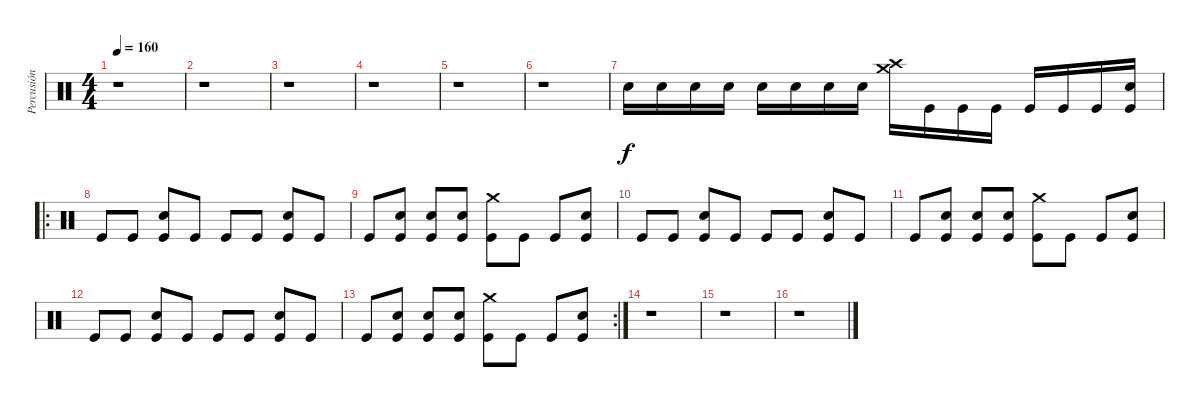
\track ("Percusión" "Percusión") {instrument percussion}
\staff {score}
\articulation defaults
\ts (4 4)
\tempo 160
\clef neutral
\ks c
r.1{dy f} |
r.1 |
r.1 |
r.1 |
r.1 |
r.1 |
"Electric Snare (hit)".16 "Electric Snare (hit)".16 "Electric Snare (hit)".16 "Electric Snare (hit)".16 "Electric Snare (hit)".16 "Electric Snare (hit)".16 "Electric Snare (hit)".16 "Electric Snare (hit)".16 ("Crash medium (hit)" "Crash high (hit)").16 "Kick (hit)".16 "Kick (hit)".16 "Kick (hit)".16 "Kick (hit)".16 "Kick (hit)".16 "Kick (hit)".16 ("Electric Snare (hit)" "Kick (hit)").16 |
\ro "Kick (hit)".8 "Kick (hit)".8
("Electric Snare (hit)" "Kick (hit)").8 "Kick (hit)".8 "Kick (hit)".8 "Kick (hit)".8 ("Electric Snare (hit)" "Kick (hit)").8 "Kick (hit)".8 |
"Kick (hit)".8 ("Electric Snare (hit)" "Kick (hit)").8 ("Electric Snare (hit)" "Kick (hit)").8 ("Electric Snare (hit)" "Kick (hit)").8 ("Crash medium (hit)" "Kick (hit)").8 "Kick (hit)".8 "Kick (hit)".8 ("Electric Snare (hit)" "Kick (hit)").8 |
"Kick (hit)".8 "Kick (hit)".8 ("Electric Snare (hit)" "Kick (hit)").8 "Kick (hit)".8 "Kick (hit)".8 "Kick (hit)".8 ("Electric Snare (hit)" "Kick (hit)").8 "Kick (hit)".8 |
"Kick (hit)".8 ("Electric Snare (hit)" "Kick (hit)").8 ("Electric Snare (hit)" "Kick (hit)").8 ("Electric Snare (hit)" "Kick (hit)").8 ("Crash medium (hit)" "Kick (hit)").8 "Kick (hit)".8 "Kick (hit)".8 ("Electric Snare (hit)" "Kick (hit)").8 |
"Kick (hit)".8 "Kick (hit)".8 ("Electric Snare (hit)" "Kick (hit)").8 "Kick (hit)".8 "Kick (hit)".8 "Kick (hit)".8 ("Electric Snare (hit)" "Kick (hit)").8 "Kick (hit)".8 |
\rc 2 "Kick (hit)".8
("Electric Snare (hit)" "Kick (hit)").8 ("Electric Snare (hit)" "Kick (hit)").8 ("Electric Snare (hit)" "Kick (hit)").8 ("Crash medium (hit)" "Kick (hit)").8 "Kick (hit)".8 "Kick (hit)".8 ("Electric Snare (hit)" "Kick (hit)").8 |
r.1 |
r.1 |
r.1
